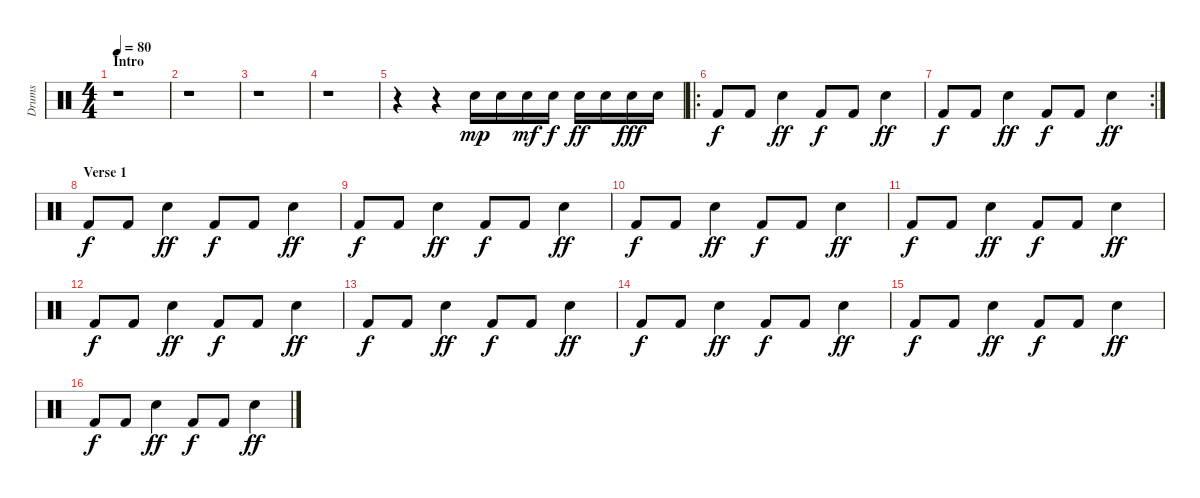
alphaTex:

\track ("Drums" "Drums") {instrument percussion}
\staff {score}
\articulation defaults
\ts (4 4)
\section ("" "Intro")
\tempo 80
\clef neutral
\ks c
r.1{dy mp} |
r.1 |
r.1 |
r.1 |
r.4 r.4 "Electric Snare (hit)".16 "Electric Snare (hit)".16 "Electric Snare (hit)".16{dy mf} "Electric Snare (hit)".16{dy f} "Electric Snare (hit)".16{dy ff} "Electric Snare (hit)".16 "Electric Snare (hit)".16{dy fff} "Electric Snare (hit)".16 |
\ro "Kick (hit) 2".8{dy f} "Kick (hit) 2".8 "Electric Snare (hit)".4{dy ff} "Kick (hit) 2".8{dy f} "Kick (hit) 2".8 "Electric Snare (hit)".4{dy ff}
|
\rc 2 "Kick (hit) 2".8{dy f} "Kick (hit) 2".8 "Electric Snare (hit)".4{dy ff} "Kick (hit) 2".8{dy f} "Kick (hit) 2".8 "Electric Snare (hit)".4{dy ff}
|
\section ("" "Verse 1")
"Kick (hit) 2".8{dy f} "Kick (hit) 2".8 "Electric Snare (hit)".4{dy ff} "Kick (hit) 2".8{dy f} "Kick (hit) 2".8 "Electric Snare (hit)".4{dy ff} |
"Kick (hit) 2".8{dy f} "Kick (hit) 2".8 "Electric Snare (hit)".4{dy ff} "Kick (hit) 2".8{dy f} "Kick (hit) 2".8 "Electric Snare (hit)".4{dy ff} |
"Kick (hit) 2".8{dy f} "Kick (hit) 2".8 "Electric Snare (hit)".4{dy ff} "Kick (hit) 2".8{dy f} "Kick (hit) 2".8 "Electric Snare (hit)".4{dy ff} |
"Kick (hit) 2".8{dy f} "Kick (hit) 2".8 "Electric Snare (hit)".4{dy ff} "Kick (hit) 2".8{dy f} "Kick (hit) 2".8 "Electric Snare (hit)".4{dy ff} |
"Kick (hit) 2".8{dy f} "Kick (hit) 2".8 "Electric Snare (hit)".4{dy ff} "Kick (hit) 2".8{dy f} "Kick (hit) 2".8 "Electric Snare (hit)".4{dy ff} |
"Kick (hit) 2".8{dy f} "Kick (hit) 2".8 "Electric Snare (hit)".4{dy ff} "Kick (hit) 2".8{dy f} "Kick (hit) 2".8 "Electric Snare (hit)".4{dy ff} |
"Kick (hit) 2".8{dy f} "Kick (hit) 2".8 "Electric Snare (hit)".4{dy ff} "Kick (hit) 2".8{dy f} "Kick (hit) 2".8 "Electric Snare (hit)".4{dy ff} |
"Kick (hit) 2".8{dy f} "Kick (hit) 2".8 "Electric Snare (hit)".4{dy ff} "Kick (hit) 2".8{dy f} "Kick (hit) 2".8 "Electric Snare (hit)".4{dy ff} |
"Kick (hit) 2".8{dy f} "Kick (hit) 2".8 "Electric Snare (hit)".4{dy ff} "Kick (hit) 2".8{dy f} "Kick (hit) 2".8 "Electric Snare (hit)".4{dy ff}
